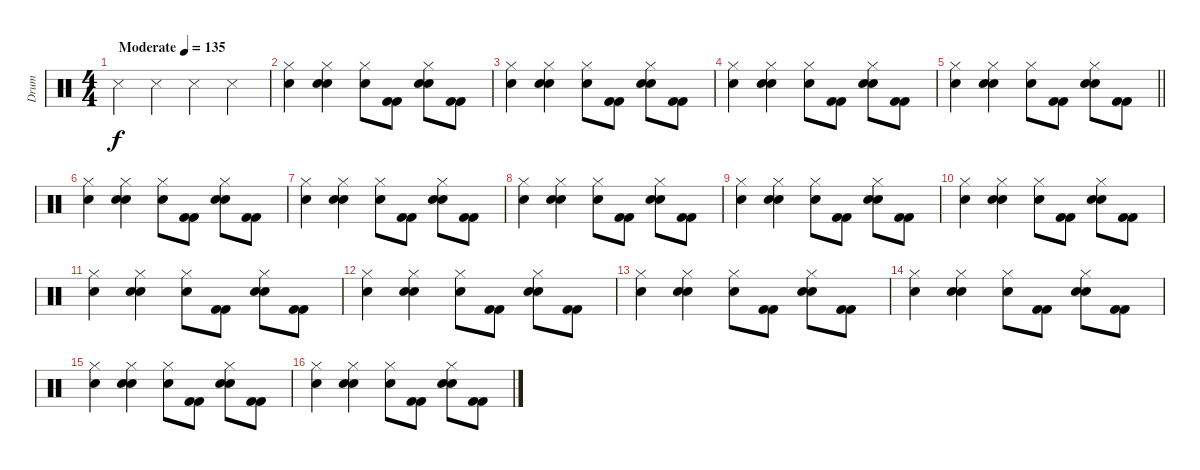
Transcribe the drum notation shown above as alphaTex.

\track ("Drum" "Drum") {instrument percussion}
\staff {score}
\articulation defaults
\ts (4 4)
\tempo (135 "Moderate")
\clef neutral
\ks c "Metronome (hit)".4{dy f} "Metronome (hit)".4 "Metronome (hit)".4 "Metronome (hit)".4
|
("Hi-Hat (closed)" "Electric Snare (hit)").4 ("Hi-Hat (closed)" "Hand Clap (hit)" "Electric Snare (hit)").4 ("Hi-Hat (closed)" "Electric Snare (hit)").8 ("Kick (hit) 2" "Kick (hit) 2").8 ("Hi-Hat (closed)" "Hand Clap (hit)" "Electric Snare (hit)").8 ("Kick (hit) 2" "Kick (hit) 2").8 |
("Hi-Hat (closed)" "Electric Snare (hit)").4 ("Hi-Hat (closed)" "Hand Clap (hit)" "Electric Snare (hit)").4 ("Hi-Hat (closed)" "Electric Snare (hit)").8 ("Kick (hit) 2" "Kick (hit) 2").8 ("Hi-Hat (closed)" "Hand Clap (hit)" "Electric Snare (hit)").8 ("Kick (hit) 2" "Kick (hit) 2").8 |
("Hi-Hat (closed)" "Electric Snare (hit)").4 ("Hi-Hat (closed)" "Hand Clap (hit)" "Electric Snare (hit)").4 ("Hi-Hat (closed)" "Electric Snare (hit)").8 ("Kick (hit) 2" "Kick (hit) 2").8 ("Hi-Hat (closed)" "Hand Clap (hit)" "Electric Snare (hit)").8 ("Kick (hit) 2" "Kick (hit) 2").8 |
\barLineRight lightlight
("Hi-Hat (closed)" "Electric Snare (hit)").4 ("Hi-Hat (closed)" "Hand Clap (hit)" "Electric Snare (hit)").4 ("Hi-Hat (closed)" "Electric Snare (hit)").8 ("Kick (hit) 2" "Kick (hit) 2").8 ("Hi-Hat (closed)" "Hand Clap (hit)" "Electric Snare (hit)").8 ("Kick (hit) 2" "Kick (hit) 2").8 |
("Hi-Hat (closed)" "Electric Snare (hit)").4 ("Hi-Hat (closed)" "Hand Clap (hit)" "Electric Snare (hit)").4 ("Hi-Hat (closed)" "Electric Snare (hit)").8 ("Kick (hit) 2" "Kick (hit) 2").8 ("Hi-Hat (closed)" "Hand Clap (hit)" "Electric Snare (hit)").8 ("Kick (hit) 2" "Kick (hit) 2").8 |
("Hi-Hat (closed)" "Electric Snare (hit)").4 ("Hi-Hat (closed)" "Hand Clap (hit)" "Electric Snare (hit)").4 ("Hi-Hat (closed)" "Electric Snare (hit)").8 ("Kick (hit) 2" "Kick (hit) 2").8 ("Hi-Hat (closed)" "Hand Clap (hit)" "Electric Snare (hit)").8 ("Kick (hit) 2" "Kick (hit) 2").8 |
("Hi-Hat (closed)" "Electric Snare (hit)").4 ("Hi-Hat (closed)" "Hand Clap (hit)" "Electric Snare (hit)").4 ("Hi-Hat (closed)" "Electric Snare (hit)").8 ("Kick (hit) 2" "Kick (hit) 2").8 ("Hi-Hat (closed)" "Hand Clap (hit)" "Electric Snare (hit)").8 ("Kick (hit) 2" "Kick (hit) 2").8 |
("Hi-Hat (closed)" "Electric Snare (hit)").4 ("Hi-Hat (closed)" "Hand Clap (hit)" "Electric Snare (hit)").4 ("Hi-Hat (closed)" "Electric Snare (hit)").8 ("Kick (hit) 2" "Kick (hit) 2").8 ("Hi-Hat (closed)" "Hand Clap (hit)" "Electric Snare (hit)").8 ("Kick (hit) 2" "Kick (hit) 2").8 |
("Hi-Hat (closed)" "Electric Snare (hit)").4 ("Hi-Hat (closed)" "Hand Clap (hit)" "Electric Snare (hit)").4 ("Hi-Hat (closed)" "Electric Snare (hit)").8 ("Kick (hit) 2" "Kick (hit) 2").8 ("Hi-Hat (closed)" "Hand Clap (hit)" "Electric Snare (hit)").8 ("Kick (hit) 2" "Kick (hit) 2").8 |
("Hi-Hat (closed)" "Electric Snare (hit)").4 ("Hi-Hat (closed)" "Hand Clap (hit)" "Electric Snare (hit)").4 ("Hi-Hat (closed)" "Electric Snare (hit)").8 ("Kick (hit) 2" "Kick (hit) 2").8 ("Hi-Hat (closed)" "Hand Clap (hit)" "Electric Snare (hit)").8 ("Kick (hit) 2" "Kick (hit) 2").8 |
("Hi-Hat (closed)" "Electric Snare (hit)").4 ("Hi-Hat (closed)" "Hand Clap (hit)" "Electric Snare (hit)").4 ("Hi-Hat (closed)" "Electric Snare (hit)").8 ("Kick (hit) 2" "Kick (hit) 2").8 ("Hi-Hat (closed)" "Hand Clap (hit)" "Electric Snare (hit)").8 ("Kick (hit) 2" "Kick (hit) 2").8 |
("Hi-Hat (closed)" "Electric Snare (hit)").4 ("Hi-Hat (closed)" "Hand Clap (hit)" "Electric Snare (hit)").4 ("Hi-Hat (closed)" "Electric Snare (hit)").8 ("Kick (hit) 2" "Kick (hit) 2").8 ("Hi-Hat (closed)" "Hand Clap (hit)" "Electric Snare (hit)").8 ("Kick (hit) 2" "Kick (hit) 2").8 |
("Hi-Hat (closed)" "Electric Snare (hit)").4 ("Hi-Hat (closed)" "Hand Clap (hit)" "Electric Snare (hit)").4 ("Hi-Hat (closed)" "Electric Snare (hit)").8 ("Kick (hit) 2" "Kick (hit) 2").8 ("Hi-Hat (closed)" "Hand Clap (hit)" "Electric Snare (hit)").8 ("Kick (hit) 2" "Kick (hit) 2").8 |
("Hi-Hat (closed)" "Electric Snare (hit)").4 ("Hi-Hat (closed)" "Hand Clap (hit)" "Electric Snare (hit)").4 ("Hi-Hat (closed)" "Electric Snare (hit)").8 ("Kick (hit) 2" "Kick (hit) 2").8 ("Hi-Hat (closed)" "Hand Clap (hit)" "Electric Snare (hit)").8 ("Kick (hit) 2" "Kick (hit) 2").8 |
("Hi-Hat (closed)" "Electric Snare (hit)").4 ("Hi-Hat (closed)" "Hand Clap (hit)" "Electric Snare (hit)").4 ("Hi-Hat (closed)" "Electric Snare (hit)").8 ("Kick (hit) 2" "Kick (hit) 2").8 ("Hi-Hat (closed)" "Hand Clap (hit)" "Electric Snare (hit)").8 ("Kick (hit) 2" "Kick (hit) 2").8
